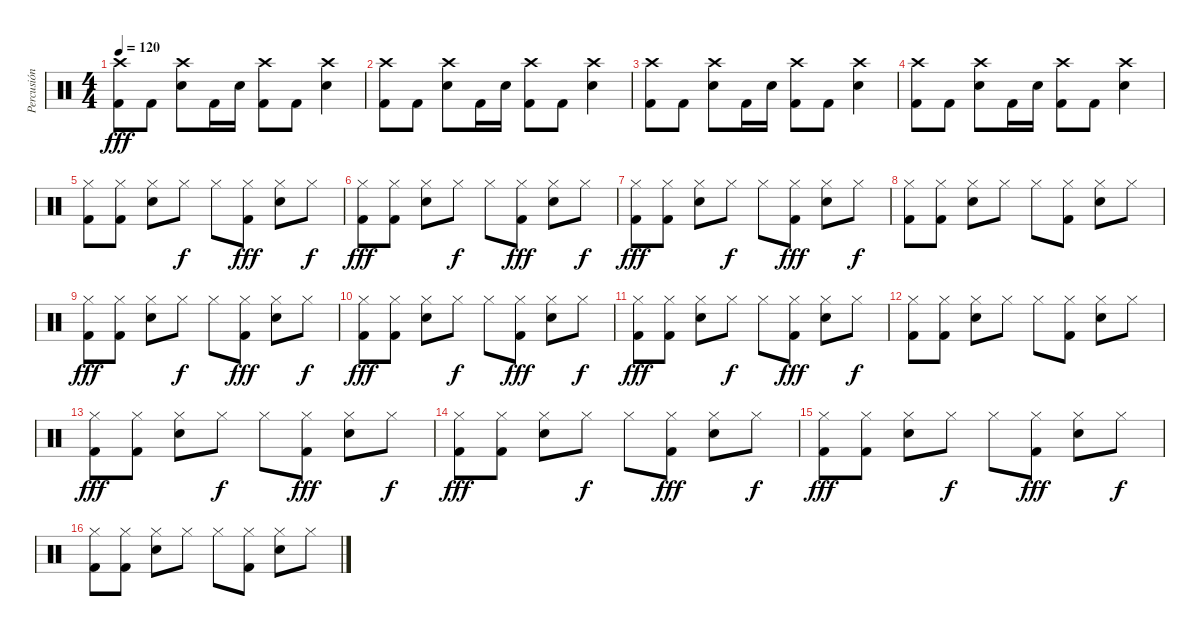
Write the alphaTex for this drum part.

\track ("Percusión" "Percusión") {instrument percussion}
\staff {score}
\articulation defaults
\ts (4 4)
\tempo 120
\clef neutral
\ks c
("Crash high (hit)" "Kick (hit) 2").8{dy fff} "Kick (hit) 2".8 ("Crash high (hit)" "Snare (hit) 2").8 "Kick (hit) 2".16 "Snare (hit) 2".16 ("Crash high (hit)" "Kick (hit) 2").8 "Kick (hit) 2".8 ("Crash high (hit)" "Snare (hit) 2").4 |
("Crash high (hit)" "Kick (hit) 2").8 "Kick (hit) 2".8 ("Crash high (hit)" "Snare (hit) 2").8 "Kick (hit) 2".16 "Snare (hit) 2".16 ("Crash high (hit)" "Kick (hit) 2").8 "Kick (hit) 2".8 ("Crash high (hit)" "Snare (hit) 2").4 |
("Crash high (hit)" "Kick (hit) 2").8 "Kick (hit) 2".8 ("Crash high (hit)" "Snare (hit) 2").8 "Kick (hit) 2".16 "Snare (hit) 2".16 ("Crash high (hit)" "Kick (hit) 2").8 "Kick (hit) 2".8 ("Crash high (hit)" "Snare (hit) 2").4 |
("Crash high (hit)" "Kick (hit) 2").8 "Kick (hit) 2".8 ("Crash high (hit)" "Snare (hit) 2").8 "Kick (hit) 2".16 "Snare (hit) 2".16 ("Crash high (hit)" "Kick (hit) 2").8 "Kick (hit) 2".8 ("Crash high (hit)" "Snare (hit) 2").4 |
("Hi-Hat (closed)" "Kick (hit) 2").8 ("Hi-Hat (closed)" "Kick (hit) 2").8 ("Hi-Hat (closed)" "Snare (hit) 2").8 "Hi-Hat (closed)".8{dy f} "Hi-Hat (closed)".8 ("Hi-Hat (closed)" "Kick (hit) 2").8{dy fff} ("Hi-Hat (closed)" "Snare (hit) 2").8 "Hi-Hat (closed)".8{dy f} |
("Hi-Hat (closed)" "Kick (hit) 2").8{dy fff} ("Hi-Hat (closed)" "Kick (hit) 2").8 ("Hi-Hat (closed)" "Snare (hit) 2").8 "Hi-Hat (closed)".8{dy f} "Hi-Hat (closed)".8 ("Hi-Hat (closed)" "Kick (hit) 2").8{dy fff} ("Hi-Hat (closed)" "Snare (hit) 2").8 "Hi-Hat (closed)".8{dy f} |
("Hi-Hat (closed)" "Kick (hit) 2").8{dy fff} ("Hi-Hat (closed)" "Kick (hit) 2").8 ("Hi-Hat (closed)" "Snare (hit) 2").8 "Hi-Hat (closed)".8{dy f} "Hi-Hat (closed)".8 ("Hi-Hat (closed)" "Kick (hit) 2").8{dy fff} ("Hi-Hat (closed)" "Snare (hit) 2").8 "Hi-Hat (closed)".8{dy f} |
("Hi-Hat (closed)" "Kick (hit) 2").8 ("Hi-Hat (closed)" "Kick (hit) 2").8 ("Hi-Hat (closed)" "Snare (hit) 2").8 "Hi-Hat (closed)".8 "Hi-Hat (closed)".8 ("Hi-Hat (closed)" "Kick (hit) 2").8 ("Hi-Hat (closed)" "Snare (hit) 2").8 "Hi-Hat (closed)".8 |
("Hi-Hat (closed)" "Kick (hit) 2").8{dy fff} ("Hi-Hat (closed)" "Kick (hit) 2").8 ("Hi-Hat (closed)" "Snare (hit) 2").8 "Hi-Hat (closed)".8{dy f} "Hi-Hat (closed)".8 ("Hi-Hat (closed)" "Kick (hit) 2").8{dy fff} ("Hi-Hat (closed)" "Snare (hit) 2").8 "Hi-Hat (closed)".8{dy f} |
("Hi-Hat (closed)" "Kick (hit) 2").8{dy fff} ("Hi-Hat (closed)" "Kick (hit) 2").8 ("Hi-Hat (closed)" "Snare (hit) 2").8 "Hi-Hat (closed)".8{dy f} "Hi-Hat (closed)".8 ("Hi-Hat (closed)" "Kick (hit) 2").8{dy fff} ("Hi-Hat (closed)" "Snare (hit) 2").8 "Hi-Hat (closed)".8{dy f} |
("Hi-Hat (closed)" "Kick (hit) 2").8{dy fff} ("Hi-Hat (closed)" "Kick (hit) 2").8 ("Hi-Hat (closed)" "Snare (hit) 2").8 "Hi-Hat (closed)".8{dy f} "Hi-Hat (closed)".8 ("Hi-Hat (closed)" "Kick (hit) 2").8{dy fff} ("Hi-Hat (closed)" "Snare (hit) 2").8 "Hi-Hat (closed)".8{dy f} |
("Hi-Hat (closed)" "Kick (hit) 2").8 ("Hi-Hat (closed)" "Kick (hit) 2").8 ("Hi-Hat (closed)" "Snare (hit) 2").8 "Hi-Hat (closed)".8 "Hi-Hat (closed)".8 ("Hi-Hat (closed)" "Kick (hit) 2").8 ("Hi-Hat (closed)" "Snare (hit) 2").8 "Hi-Hat (closed)".8 |
("Hi-Hat (closed)" "Kick (hit) 2").8{dy fff} ("Hi-Hat (closed)" "Kick (hit) 2").8 ("Hi-Hat (closed)" "Snare (hit) 2").8 "Hi-Hat (closed)".8{dy f} "Hi-Hat (closed)".8 ("Hi-Hat (closed)" "Kick (hit) 2").8{dy fff} ("Hi-Hat (closed)" "Snare (hit) 2").8 "Hi-Hat (closed)".8{dy f} |
("Hi-Hat (closed)" "Kick (hit) 2").8{dy fff} ("Hi-Hat (closed)" "Kick (hit) 2").8 ("Hi-Hat (closed)" "Snare (hit) 2").8 "Hi-Hat (closed)".8{dy f} "Hi-Hat (closed)".8 ("Hi-Hat (closed)" "Kick (hit) 2").8{dy fff} ("Hi-Hat (closed)" "Snare (hit) 2").8 "Hi-Hat (closed)".8{dy f} |
("Hi-Hat (closed)" "Kick (hit) 2").8{dy fff} ("Hi-Hat (closed)" "Kick (hit) 2").8 ("Hi-Hat (closed)" "Snare (hit) 2").8 "Hi-Hat (closed)".8{dy f} "Hi-Hat (closed)".8 ("Hi-Hat (closed)" "Kick (hit) 2").8{dy fff} ("Hi-Hat (closed)" "Snare (hit) 2").8 "Hi-Hat (closed)".8{dy f} |
("Hi-Hat (closed)" "Kick (hit) 2").8 ("Hi-Hat (closed)" "Kick (hit) 2").8 ("Hi-Hat (closed)" "Snare (hit) 2").8 "Hi-Hat (closed)".8 "Hi-Hat (closed)".8 ("Hi-Hat (closed)" "Kick (hit) 2").8 ("Hi-Hat (closed)" "Snare (hit) 2").8 "Hi-Hat (closed)".8
